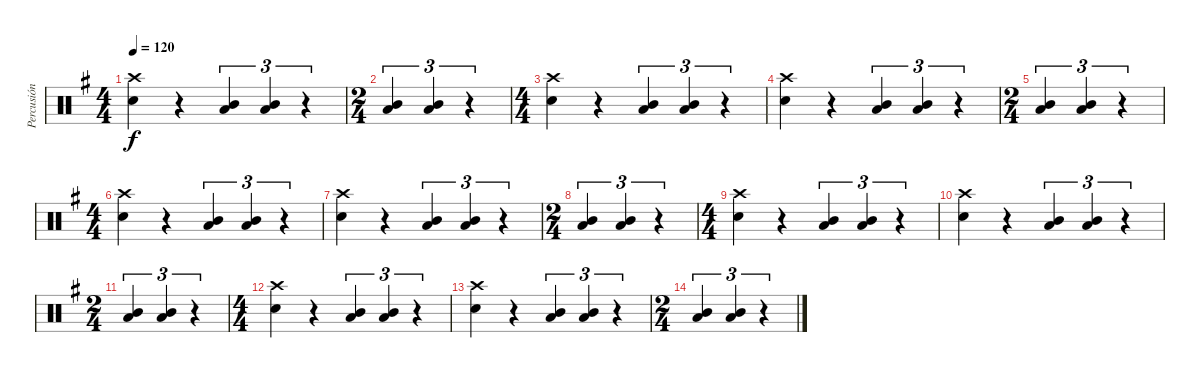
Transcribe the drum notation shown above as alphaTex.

\track ("Percusión" "Percusión") {instrument percussion}
\staff {score}
\articulation defaults
\ts (4 4)
\tempo 120
\clef neutral
\ks g
("Crash high (hit)" "Snare (hit) 2").4{dy f} r.4 ("Mid Tom (hit)" "Low Tom (hit)").4{tu (3 2)} ("Mid Tom (hit)" "Low Tom (hit)").4{tu (3 2)} r.4{tu (3 2)} |
\ts (2 4)
("Mid Tom (hit)" "Low Tom (hit)").4{tu (3 2)} ("Mid Tom (hit)" "Low Tom (hit)").4{tu (3 2)} r.4{tu (3 2)} |
\ts (4 4)
("Crash high (hit)" "Snare (hit) 2").4 r.4 ("Mid Tom (hit)" "Low Tom (hit)").4{tu (3 2)} ("Mid Tom (hit)" "Low Tom (hit)").4{tu (3 2)} r.4{tu (3 2)} |
("Crash high (hit)" "Snare (hit) 2").4 r.4 ("Mid Tom (hit)" "Low Tom (hit)").4{tu (3 2)} ("Mid Tom (hit)" "Low Tom (hit)").4{tu (3 2)} r.4{tu (3 2)} |
\ts (2 4)
("Mid Tom (hit)" "Low Tom (hit)").4{tu (3 2)} ("Mid Tom (hit)" "Low Tom (hit)").4{tu (3 2)} r.4{tu (3 2)} |
\ts (4 4)
("Crash high (hit)" "Snare (hit) 2").4 r.4 ("Mid Tom (hit)" "Low Tom (hit)").4{tu (3 2)} ("Mid Tom (hit)" "Low Tom (hit)").4{tu (3 2)} r.4{tu (3 2)} |
("Crash high (hit)" "Snare (hit) 2").4 r.4 ("Mid Tom (hit)" "Low Tom (hit)").4{tu (3 2)} ("Mid Tom (hit)" "Low Tom (hit)").4{tu (3 2)} r.4{tu (3 2)} |
\ts (2 4)
("Mid Tom (hit)" "Low Tom (hit)").4{tu (3 2)} ("Mid Tom (hit)" "Low Tom (hit)").4{tu (3 2)} r.4{tu (3 2)} |
\ts (4 4)
("Crash high (hit)" "Snare (hit) 2").4 r.4 ("Mid Tom (hit)" "Low Tom (hit)").4{tu (3 2)} ("Mid Tom (hit)" "Low Tom (hit)").4{tu (3 2)} r.4{tu (3 2)} |
("Crash high (hit)" "Snare (hit) 2").4 r.4 ("Mid Tom (hit)" "Low Tom (hit)").4{tu (3 2)} ("Mid Tom (hit)" "Low Tom (hit)").4{tu (3 2)} r.4{tu (3 2)} |
\ts (2 4)
("Mid Tom (hit)" "Low Tom (hit)").4{tu (3 2)} ("Mid Tom (hit)" "Low Tom (hit)").4{tu (3 2)} r.4{tu (3 2)} |
\ts (4 4)
("Crash high (hit)" "Snare (hit) 2").4 r.4 ("Mid Tom (hit)" "Low Tom (hit)").4{tu (3 2)} ("Mid Tom (hit)" "Low Tom (hit)").4{tu (3 2)} r.4{tu (3 2)} |
("Crash high (hit)" "Snare (hit) 2").4 r.4 ("Mid Tom (hit)" "Low Tom (hit)").4{tu (3 2)} ("Mid Tom (hit)" "Low Tom (hit)").4{tu (3 2)} r.4{tu (3 2)} |
\ts (2 4)
("Mid Tom (hit)" "Low Tom (hit)").4{tu (3 2)} ("Mid Tom (hit)" "Low Tom (hit)").4{tu (3 2)} r.4{tu (3 2)}
